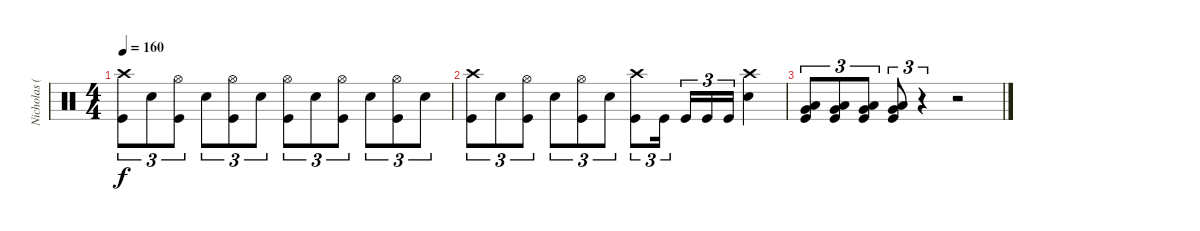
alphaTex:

\track ("Nicholas (Drums)" "Nicholas (") {instrument percussion}
\staff {score}
\articulation defaults
\ts (4 4)
\tempo 160
\clef neutral
\ks c
("Crash high (hit)" "Kick (hit)").8{tu (3 2) dy f} "Electric Snare (hit)".8{tu (3 2)} ("Hi-Hat (open)" "Kick (hit)").8{tu (3 2)} "Electric Snare (hit)".8{tu (3 2)} ("Hi-Hat (open)" "Kick (hit)").8{tu (3 2)} "Electric Snare (hit)".8{tu (3 2)} ("Hi-Hat (open)" "Kick (hit)").8{tu (3 2)} "Electric Snare (hit)".8{tu (3 2)} ("Hi-Hat (open)" "Kick (hit)").8{tu (3 2)} "Electric Snare (hit)".8{tu (3 2)} ("Hi-Hat (open)" "Kick (hit)").8{tu (3 2)} "Electric Snare (hit)".8{tu (3 2)} |
("Crash high (hit)" "Kick (hit)").8{tu (3 2)} "Electric Snare (hit)".8{tu (3 2)} ("Hi-Hat (open)" "Kick (hit)").8{tu (3 2)} "Electric Snare (hit)".8{tu (3 2)} ("Hi-Hat (open)" "Kick (hit)").8{tu (3 2)} "Electric Snare (hit)".8{tu (3 2)} ("Crash high (hit)" "Kick (hit)").8{tu (3 2)} "Kick (hit)".16{tu (3 2)} "Kick (hit)".16{tu (3 2)} "Kick (hit)".16{tu (3 2)} "Kick (hit)".16{tu (3 2)} ("Crash high (hit)" "Electric Snare (hit)").4 |
("Low Tom (hit)" "Very Low Tom (hit)" "Kick (hit)").8{tu (3 2)} ("Low Tom (hit)" "Very Low Tom (hit)" "Kick (hit)").8{tu (3 2)} ("Low Tom (hit)" "Very Low Tom (hit)" "Kick (hit)").8{tu (3 2)} ("Low Tom (hit)" "Very Low Tom (hit)" "Kick (hit)").8{tu (3 2)} r.4{tu (3 2)} r.2
